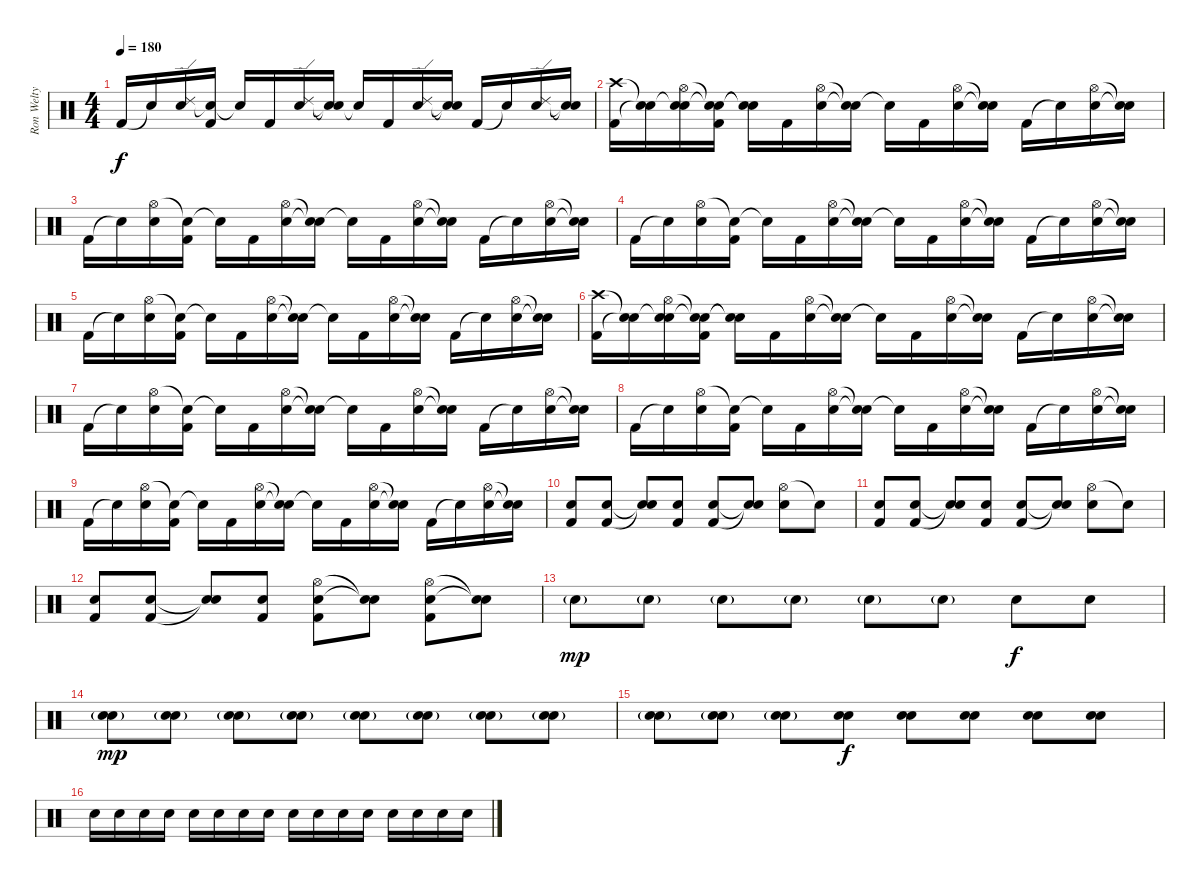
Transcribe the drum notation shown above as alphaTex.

\track ("Ron Welty (drums)" "Ron Welty ") {instrument percussion}
\staff {score}
\articulation defaults
\ts (4 4)
\tempo 180
\clef neutral
\ks c "Kick (hit) 2".16{dy f} "Snare (hit)"{t}.16
("Ride (edge) 2" "Electric Snare (hit)").16 ("Snare (hit)"{t} "Kick (hit) 2").16 "Snare (hit)"{t}.16 "Kick (hit) 2".16 ("Ride (edge) 2" "Electric Snare (hit)").16 ("Snare (hit)"{t} "Snare (hit)"{t}).16 "Snare (hit)"{t}.16 "Kick (hit) 2".16 ("Ride (edge) 2" "Electric Snare (hit)").16 ("Snare (hit)"{t} "Snare (hit)"{t}).16 "Kick (hit) 2".16 "Snare (hit)"{t}.16 ("Ride (edge) 2" "Electric Snare (hit)").16 ("Snare (hit)"{t} "Snare (hit)"{t}).16 |
("Crash high (hit)" "Kick (hit) 2").16 ("Snare (hit)"{t} "Snare (hit)"{t}).16 ("Snare (hit)"{t} "Hi-Hat (open)" "Electric Snare (hit)").16 ("Snare (hit)"{t} "Snare (hit)"{t} "Kick (hit) 2").16 ("Snare (hit)"{t} "Snare (hit)"{t}).16 "Kick (hit) 2".16 ("Hi-Hat (open)" "Electric Snare (hit)").16 ("Snare (hit)"{t} "Snare (hit)"{t}).16 "Snare (hit)"{t}.16 "Kick (hit) 2".16 ("Hi-Hat (open)" "Electric Snare (hit)").16 ("Snare (hit)"{t} "Snare (hit)"{t}).16 "Kick (hit) 2".16 "Snare (hit)"{t}.16 ("Hi-Hat (open)" "Electric Snare (hit)").16 ("Snare (hit)"{t} "Snare (hit)"{t}).16 |
"Kick (hit) 2".16 "Snare (hit)"{t}.16 ("Hi-Hat (open)" "Electric Snare (hit)").16 ("Snare (hit)"{t} "Kick (hit) 2").16 "Snare (hit)"{t}.16 "Kick (hit) 2".16 ("Hi-Hat (open)" "Electric Snare (hit)").16 ("Snare (hit)"{t} "Snare (hit)"{t}).16 "Snare (hit)"{t}.16 "Kick (hit) 2".16 ("Hi-Hat (open)" "Electric Snare (hit)").16 ("Snare (hit)"{t} "Snare (hit)"{t}).16 "Kick (hit) 2".16 "Snare (hit)"{t}.16 ("Hi-Hat (open)" "Electric Snare (hit)").16 ("Snare (hit)"{t} "Snare (hit)"{t}).16 |
"Kick (hit) 2".16 "Snare (hit)"{t}.16 ("Hi-Hat (open)" "Electric Snare (hit)").16 ("Snare (hit)"{t} "Kick (hit) 2").16 "Snare (hit)"{t}.16 "Kick (hit) 2".16 ("Hi-Hat (open)" "Electric Snare (hit)").16 ("Snare (hit)"{t} "Snare (hit)"{t}).16 "Snare (hit)"{t}.16 "Kick (hit) 2".16 ("Hi-Hat (open)" "Electric Snare (hit)").16 ("Snare (hit)"{t} "Snare (hit)"{t}).16 "Kick (hit) 2".16 "Snare (hit)"{t}.16 ("Hi-Hat (open)" "Electric Snare (hit)").16 ("Snare (hit)"{t} "Snare (hit)"{t}).16 |
"Kick (hit) 2".16 "Snare (hit)"{t}.16 ("Hi-Hat (open)" "Electric Snare (hit)").16 ("Snare (hit)"{t} "Kick (hit) 2").16 "Snare (hit)"{t}.16 "Kick (hit) 2".16 ("Hi-Hat (open)" "Electric Snare (hit)").16 ("Snare (hit)"{t} "Snare (hit)"{t}).16 "Snare (hit)"{t}.16 "Kick (hit) 2".16 ("Hi-Hat (open)" "Electric Snare (hit)").16 ("Snare (hit)"{t} "Snare (hit)"{t}).16 "Kick (hit) 2".16 "Snare (hit)"{t}.16 ("Hi-Hat (open)" "Electric Snare (hit)").16 ("Snare (hit)"{t} "Snare (hit)"{t}).16 |
("Crash high (hit)" "Kick (hit) 2").16 ("Snare (hit)"{t} "Snare (hit)"{t}).16 ("Snare (hit)"{t} "Hi-Hat (open)" "Electric Snare (hit)").16 ("Snare (hit)"{t} "Snare (hit)"{t} "Kick (hit) 2").16 ("Snare (hit)"{t} "Snare (hit)"{t}).16 "Kick (hit) 2".16 ("Hi-Hat (open)" "Electric Snare (hit)").16 ("Snare (hit)"{t} "Snare (hit)"{t}).16 "Snare (hit)"{t}.16 "Kick (hit) 2".16 ("Hi-Hat (open)" "Electric Snare (hit)").16 ("Snare (hit)"{t} "Snare (hit)"{t}).16 "Kick (hit) 2".16 "Snare (hit)"{t}.16 ("Hi-Hat (open)" "Electric Snare (hit)").16 ("Snare (hit)"{t} "Snare (hit)"{t}).16 |
"Kick (hit) 2".16 "Snare (hit)"{t}.16 ("Hi-Hat (open)" "Electric Snare (hit)").16 ("Snare (hit)"{t} "Kick (hit) 2").16 "Snare (hit)"{t}.16 "Kick (hit) 2".16 ("Hi-Hat (open)" "Electric Snare (hit)").16 ("Snare (hit)"{t} "Snare (hit)"{t}).16 "Snare (hit)"{t}.16 "Kick (hit) 2".16 ("Hi-Hat (open)" "Electric Snare (hit)").16 ("Snare (hit)"{t} "Snare (hit)"{t}).16 "Kick (hit) 2".16 "Snare (hit)"{t}.16 ("Hi-Hat (open)" "Electric Snare (hit)").16 ("Snare (hit)"{t} "Snare (hit)"{t}).16 |
"Kick (hit) 2".16 "Snare (hit)"{t}.16 ("Hi-Hat (open)" "Electric Snare (hit)").16 ("Snare (hit)"{t} "Kick (hit) 2").16 "Snare (hit)"{t}.16 "Kick (hit) 2".16 ("Hi-Hat (open)" "Electric Snare (hit)").16 ("Snare (hit)"{t} "Snare (hit)"{t}).16 "Snare (hit)"{t}.16 "Kick (hit) 2".16 ("Hi-Hat (open)" "Electric Snare (hit)").16 ("Snare (hit)"{t} "Snare (hit)"{t}).16 "Kick (hit) 2".16 "Snare (hit)"{t}.16 ("Hi-Hat (open)" "Electric Snare (hit)").16 ("Snare (hit)"{t} "Snare (hit)"{t}).16 |
"Kick (hit) 2".16 "Snare (hit)"{t}.16 ("Hi-Hat (open)" "Electric Snare (hit)").16 ("Snare (hit)"{t} "Kick (hit) 2").16 "Snare (hit)"{t}.16 "Kick (hit) 2".16 ("Hi-Hat (open)" "Electric Snare (hit)").16 ("Snare (hit)"{t} "Snare (hit)"{t}).16 "Snare (hit)"{t}.16 "Kick (hit) 2".16 ("Hi-Hat (open)" "Electric Snare (hit)").16 ("Snare (hit)"{t} "Snare (hit)"{t}).16 "Kick (hit) 2".16 "Snare (hit)"{t}.16 ("Hi-Hat (open)" "Electric Snare (hit)").16 ("Snare (hit)"{t} "Snare (hit)"{t}).16 |
("Electric Snare (hit)" "Kick (hit) 2").8 ("Electric Snare (hit)" "Kick (hit) 2").8 ("Snare (hit)"{t} "Snare (hit)"{t}).8 ("Electric Snare (hit)" "Kick (hit) 2").8 ("Electric Snare (hit)" "Kick (hit) 2").8 ("Snare (hit)"{t} "Snare (hit)"{t}).8 ("Hi-Hat (open)" "Electric Snare (hit)").8 "Snare (hit)"{t}.8 |
("Electric Snare (hit)" "Kick (hit) 2").8 ("Electric Snare (hit)" "Kick (hit) 2").8 ("Snare (hit)"{t} "Snare (hit)"{t}).8 ("Electric Snare (hit)" "Kick (hit) 2").8 ("Electric Snare (hit)" "Kick (hit) 2").8 ("Snare (hit)"{t} "Snare (hit)"{t}).8 ("Hi-Hat (open)" "Electric Snare (hit)").8 "Snare (hit)"{t}.8 |
("Electric Snare (hit)" "Kick (hit) 2").8 ("Electric Snare (hit)" "Kick (hit) 2").8 ("Snare (hit)"{t} "Snare (hit)"{t}).8 ("Electric Snare (hit)" "Kick (hit) 2").8 ("Hi-Hat (open)" "Electric Snare (hit)" "Kick (hit) 2").8 ("Snare (hit)"{t} "Snare (hit)"{t}).8 ("Hi-Hat (open)" "Electric Snare (hit)" "Kick (hit) 2").8 ("Snare (hit)"{t} "Snare (hit)"{t}).8 |
"Electric Snare (hit)"{g}.8{dy mp volume 10} "Electric Snare (hit)"{g}.8 "Electric Snare (hit)"{g}.8 "Electric Snare (hit)"{g}.8 "Electric Snare (hit)"{g}.8 "Electric Snare (hit)"{g}.8 "Electric Snare (hit)".8{dy f} "Electric Snare (hit)".8 |
("Electric Snare (hit)"{g} "Electric Snare (hit)").8{dy mp} ("Electric Snare (hit)"{g} "Electric Snare (hit)").8 ("Electric Snare (hit)"{g} "Electric Snare (hit)").8 ("Electric Snare (hit)"{g} "Electric Snare (hit)").8 ("Electric Snare (hit)"{g} "Electric Snare (hit)").8 ("Electric Snare (hit)"{g} "Electric Snare (hit)").8 ("Electric Snare (hit)"{g} "Electric Snare (hit)").8 ("Electric Snare (hit)"{g} "Electric Snare (hit)").8 |
("Electric Snare (hit)"{g} "Electric Snare (hit)").8 ("Electric Snare (hit)"{g} "Electric Snare (hit)").8 ("Electric Snare (hit)"{g} "Electric Snare (hit)").8 ("Electric Snare (hit)" "Electric Snare (hit)").8{dy f} ("Electric Snare (hit)" "Electric Snare (hit)").8 ("Electric Snare (hit)" "Electric Snare (hit)").8 ("Electric Snare (hit)" "Electric Snare (hit)").8 ("Electric Snare (hit)" "Electric Snare (hit)").8 |
"Electric Snare (hit)".16{volume 13} "Electric Snare (hit)".16 "Electric Snare (hit)".16 "Electric Snare (hit)".16 "Electric Snare (hit)".16 "Electric Snare (hit)".16 "Electric Snare (hit)".16 "Electric Snare (hit)".16 "Electric Snare (hit)".16 "Electric Snare (hit)".16 "Electric Snare (hit)".16 "Electric Snare (hit)".16 "Electric Snare (hit)".16 "Electric Snare (hit)".16 "Electric Snare (hit)".16 "Electric Snare (hit)".16
